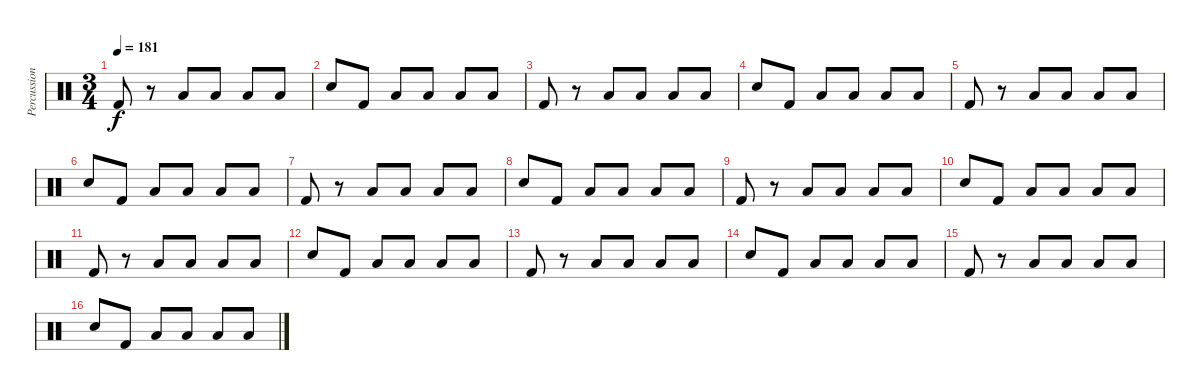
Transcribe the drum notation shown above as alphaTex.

\track ("Percussion" "Percussion") {instrument percussion}
\staff {score}
\articulation defaults
\ts (3 4)
\tempo 181
\clef neutral
\ks c "Kick (hit) 2".8{dy f}
r.8 "Low Floor Tom (hit)".8 "Low Floor Tom (hit)".8 "Low Floor Tom (hit)".8 "Low Floor Tom (hit)".8 |
"Snare (hit) 2".8 "Kick (hit) 2".8 "Low Floor Tom (hit)".8 "Low Floor Tom (hit)".8 "Low Floor Tom (hit)".8 "Low Floor Tom (hit)".8 |
"Kick (hit) 2".8 r.8 "Low Floor Tom (hit)".8 "Low Floor Tom (hit)".8 "Low Floor Tom (hit)".8 "Low Floor Tom (hit)".8 |
"Snare (hit) 2".8 "Kick (hit) 2".8 "Low Floor Tom (hit)".8 "Low Floor Tom (hit)".8 "Low Floor Tom (hit)".8 "Low Floor Tom (hit)".8 |
"Kick (hit) 2".8 r.8 "Low Floor Tom (hit)".8 "Low Floor Tom (hit)".8 "Low Floor Tom (hit)".8 "Low Floor Tom (hit)".8 |
"Snare (hit) 2".8 "Kick (hit) 2".8 "Low Floor Tom (hit)".8 "Low Floor Tom (hit)".8 "Low Floor Tom (hit)".8 "Low Floor Tom (hit)".8 |
"Kick (hit) 2".8 r.8 "Low Floor Tom (hit)".8 "Low Floor Tom (hit)".8 "Low Floor Tom (hit)".8 "Low Floor Tom (hit)".8 |
"Snare (hit) 2".8 "Kick (hit) 2".8 "Low Floor Tom (hit)".8 "Low Floor Tom (hit)".8 "Low Floor Tom (hit)".8 "Low Floor Tom (hit)".8 |
"Kick (hit) 2".8 r.8 "Low Floor Tom (hit)".8 "Low Floor Tom (hit)".8 "Low Floor Tom (hit)".8 "Low Floor Tom (hit)".8 |
"Snare (hit) 2".8 "Kick (hit) 2".8 "Low Floor Tom (hit)".8 "Low Floor Tom (hit)".8 "Low Floor Tom (hit)".8 "Low Floor Tom (hit)".8 |
"Kick (hit) 2".8 r.8 "Low Floor Tom (hit)".8 "Low Floor Tom (hit)".8 "Low Floor Tom (hit)".8 "Low Floor Tom (hit)".8 |
"Snare (hit) 2".8 "Kick (hit) 2".8 "Low Floor Tom (hit)".8 "Low Floor Tom (hit)".8 "Low Floor Tom (hit)".8 "Low Floor Tom (hit)".8 |
"Kick (hit) 2".8 r.8 "Low Floor Tom (hit)".8 "Low Floor Tom (hit)".8 "Low Floor Tom (hit)".8 "Low Floor Tom (hit)".8 |
"Snare (hit) 2".8 "Kick (hit) 2".8 "Low Floor Tom (hit)".8 "Low Floor Tom (hit)".8 "Low Floor Tom (hit)".8 "Low Floor Tom (hit)".8 |
"Kick (hit) 2".8 r.8 "Low Floor Tom (hit)".8 "Low Floor Tom (hit)".8 "Low Floor Tom (hit)".8 "Low Floor Tom (hit)".8 |
"Snare (hit) 2".8 "Kick (hit) 2".8 "Low Floor Tom (hit)".8 "Low Floor Tom (hit)".8 "Low Floor Tom (hit)".8 "Low Floor Tom (hit)".8
